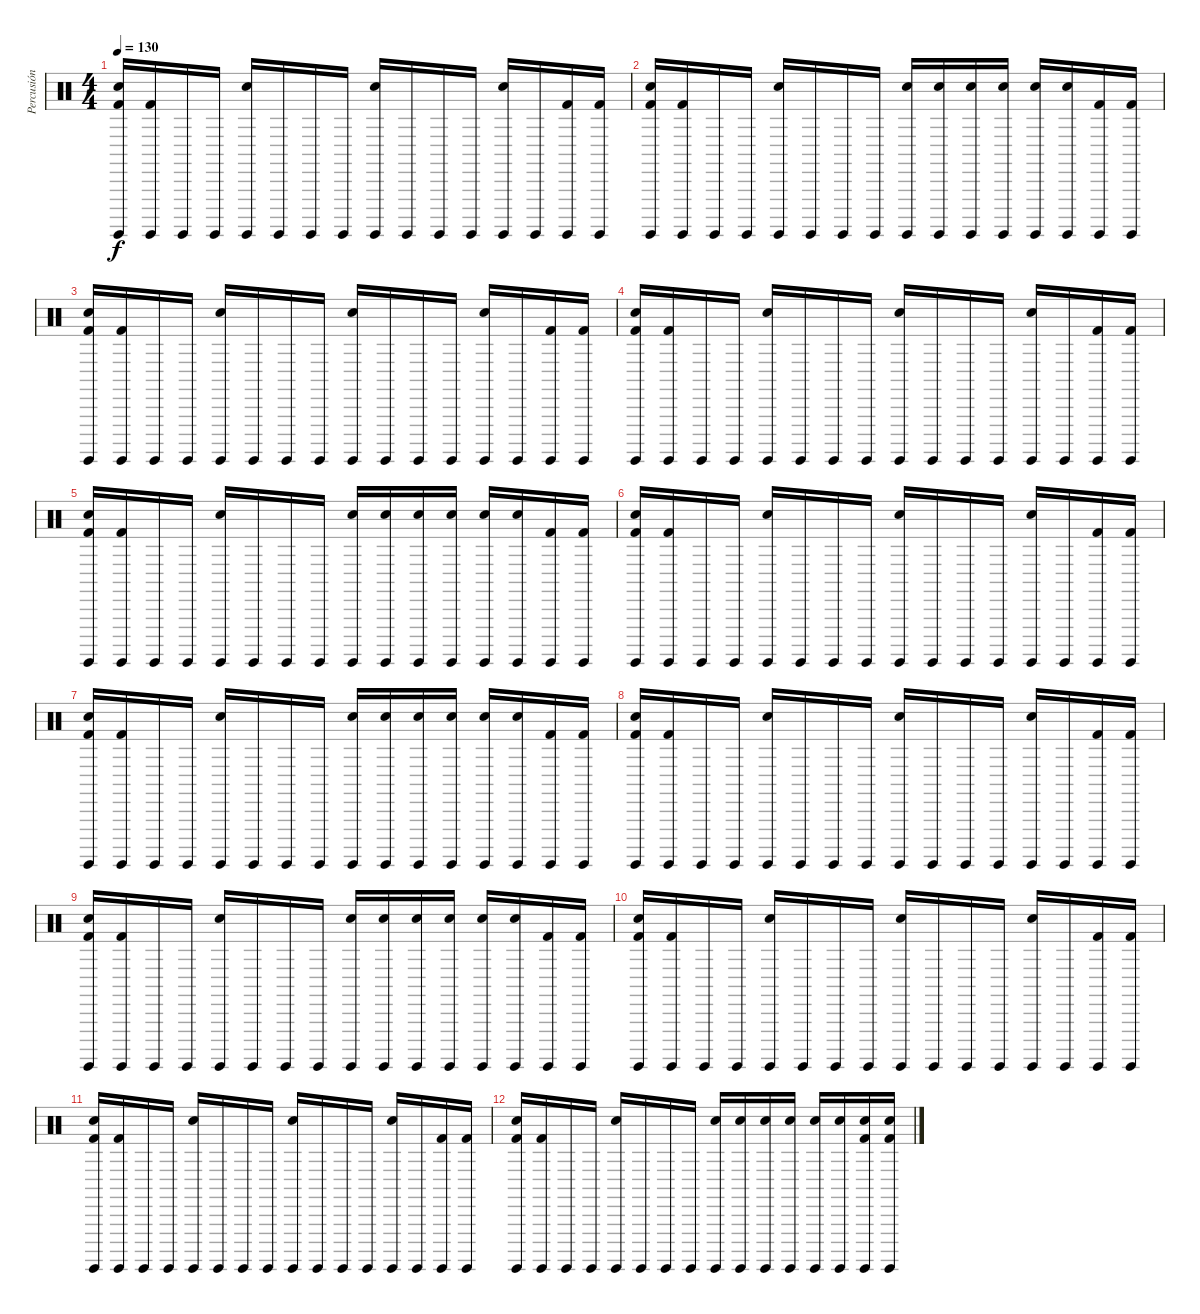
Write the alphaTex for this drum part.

\track ("Percusión" "Percusión") {instrument percussion}
\staff {score}
\articulation defaults
\ts (4 4)
\tempo 130
\clef neutral
\ks c
("Kick (hit) 2" "Electric Snare (hit)" "Surdo (hit)").16{dy f} ("Kick (hit) 2" "Surdo (hit)").16 "Surdo (hit)".16 "Surdo (hit)".16 ("Electric Snare (hit)" "Surdo (hit)").16 "Surdo (hit)".16 "Surdo (hit)".16 "Surdo (hit)".16 ("Electric Snare (hit)" "Surdo (hit)").16 "Surdo (hit)".16 "Surdo (hit)".16 "Surdo (hit)".16 ("Electric Snare (hit)" "Surdo (hit)").16 "Surdo (hit)".16 ("Kick (hit) 2" "Surdo (hit)").16 ("Kick (hit) 2" "Surdo (hit)").16 |
("Kick (hit) 2" "Electric Snare (hit)" "Surdo (hit)").16 ("Kick (hit) 2" "Surdo (hit)").16 "Surdo (hit)".16 "Surdo (hit)".16 ("Electric Snare (hit)" "Surdo (hit)").16 "Surdo (hit)".16 "Surdo (hit)".16 "Surdo (hit)".16 ("Electric Snare (hit)" "Surdo (hit)").16 ("Electric Snare (hit)" "Surdo (hit)").16 ("Electric Snare (hit)" "Surdo (hit)").16 ("Electric Snare (hit)" "Surdo (hit)").16 ("Electric Snare (hit)" "Surdo (hit)").16 ("Electric Snare (hit)" "Surdo (hit)").16 ("Kick (hit) 2" "Surdo (hit)").16 ("Kick (hit) 2" "Surdo (hit)").16 |
("Kick (hit) 2" "Electric Snare (hit)" "Surdo (hit)").16 ("Kick (hit) 2" "Surdo (hit)").16 "Surdo (hit)".16 "Surdo (hit)".16 ("Electric Snare (hit)" "Surdo (hit)").16 "Surdo (hit)".16 "Surdo (hit)".16 "Surdo (hit)".16 ("Electric Snare (hit)" "Surdo (hit)").16 "Surdo (hit)".16 "Surdo (hit)".16 "Surdo (hit)".16 ("Electric Snare (hit)" "Surdo (hit)").16 "Surdo (hit)".16 ("Kick (hit) 2" "Surdo (hit)").16 ("Kick (hit) 2" "Surdo (hit)").16 |
("Kick (hit) 2" "Electric Snare (hit)" "Surdo (hit)").16 ("Kick (hit) 2" "Surdo (hit)").16 "Surdo (hit)".16 "Surdo (hit)".16 ("Electric Snare (hit)" "Surdo (hit)").16 "Surdo (hit)".16 "Surdo (hit)".16 "Surdo (hit)".16 ("Electric Snare (hit)" "Surdo (hit)").16 "Surdo (hit)".16 "Surdo (hit)".16 "Surdo (hit)".16 ("Electric Snare (hit)" "Surdo (hit)").16 "Surdo (hit)".16 ("Kick (hit) 2" "Surdo (hit)").16 ("Kick (hit) 2" "Surdo (hit)").16 |
("Kick (hit) 2" "Electric Snare (hit)" "Surdo (hit)").16 ("Kick (hit) 2" "Surdo (hit)").16 "Surdo (hit)".16 "Surdo (hit)".16 ("Electric Snare (hit)" "Surdo (hit)").16 "Surdo (hit)".16 "Surdo (hit)".16 "Surdo (hit)".16 ("Electric Snare (hit)" "Surdo (hit)").16 ("Electric Snare (hit)" "Surdo (hit)").16 ("Electric Snare (hit)" "Surdo (hit)").16 ("Electric Snare (hit)" "Surdo (hit)").16 ("Electric Snare (hit)" "Surdo (hit)").16 ("Electric Snare (hit)" "Surdo (hit)").16 ("Kick (hit) 2" "Surdo (hit)").16 ("Kick (hit) 2" "Surdo (hit)").16 |
("Kick (hit) 2" "Electric Snare (hit)" "Surdo (hit)").16 ("Kick (hit) 2" "Surdo (hit)").16 "Surdo (hit)".16 "Surdo (hit)".16 ("Electric Snare (hit)" "Surdo (hit)").16 "Surdo (hit)".16 "Surdo (hit)".16 "Surdo (hit)".16 ("Electric Snare (hit)" "Surdo (hit)").16 "Surdo (hit)".16 "Surdo (hit)".16 "Surdo (hit)".16 ("Electric Snare (hit)" "Surdo (hit)").16 "Surdo (hit)".16 ("Kick (hit) 2" "Surdo (hit)").16 ("Kick (hit) 2" "Surdo (hit)").16 |
("Kick (hit) 2" "Electric Snare (hit)" "Surdo (hit)").16 ("Kick (hit) 2" "Surdo (hit)").16 "Surdo (hit)".16 "Surdo (hit)".16 ("Electric Snare (hit)" "Surdo (hit)").16 "Surdo (hit)".16 "Surdo (hit)".16 "Surdo (hit)".16 ("Electric Snare (hit)" "Surdo (hit)").16 ("Electric Snare (hit)" "Surdo (hit)").16 ("Electric Snare (hit)" "Surdo (hit)").16 ("Electric Snare (hit)" "Surdo (hit)").16 ("Electric Snare (hit)" "Surdo (hit)").16 ("Electric Snare (hit)" "Surdo (hit)").16 ("Kick (hit) 2" "Surdo (hit)").16 ("Kick (hit) 2" "Surdo (hit)").16 |
("Kick (hit) 2" "Electric Snare (hit)" "Surdo (hit)").16 ("Kick (hit) 2" "Surdo (hit)").16 "Surdo (hit)".16 "Surdo (hit)".16 ("Electric Snare (hit)" "Surdo (hit)").16 "Surdo (hit)".16 "Surdo (hit)".16 "Surdo (hit)".16 ("Electric Snare (hit)" "Surdo (hit)").16 "Surdo (hit)".16 "Surdo (hit)".16 "Surdo (hit)".16 ("Electric Snare (hit)" "Surdo (hit)").16 "Surdo (hit)".16 ("Kick (hit) 2" "Surdo (hit)").16 ("Kick (hit) 2" "Surdo (hit)").16 |
("Kick (hit) 2" "Electric Snare (hit)" "Surdo (hit)").16 ("Kick (hit) 2" "Surdo (hit)").16 "Surdo (hit)".16 "Surdo (hit)".16 ("Electric Snare (hit)" "Surdo (hit)").16 "Surdo (hit)".16 "Surdo (hit)".16 "Surdo (hit)".16 ("Electric Snare (hit)" "Surdo (hit)").16 ("Electric Snare (hit)" "Surdo (hit)").16 ("Electric Snare (hit)" "Surdo (hit)").16 ("Electric Snare (hit)" "Surdo (hit)").16 ("Electric Snare (hit)" "Surdo (hit)").16 ("Electric Snare (hit)" "Surdo (hit)").16 ("Kick (hit) 2" "Surdo (hit)").16 ("Kick (hit) 2" "Surdo (hit)").16 |
("Kick (hit) 2" "Electric Snare (hit)" "Surdo (hit)").16 ("Kick (hit) 2" "Surdo (hit)").16 "Surdo (hit)".16 "Surdo (hit)".16 ("Electric Snare (hit)" "Surdo (hit)").16 "Surdo (hit)".16 "Surdo (hit)".16 "Surdo (hit)".16 ("Electric Snare (hit)" "Surdo (hit)").16 "Surdo (hit)".16 "Surdo (hit)".16 "Surdo (hit)".16 ("Electric Snare (hit)" "Surdo (hit)").16 "Surdo (hit)".16 ("Kick (hit) 2" "Surdo (hit)").16 ("Kick (hit) 2" "Surdo (hit)").16 |
("Kick (hit) 2" "Electric Snare (hit)" "Surdo (hit)").16 ("Kick (hit) 2" "Surdo (hit)").16 "Surdo (hit)".16 "Surdo (hit)".16 ("Electric Snare (hit)" "Surdo (hit)").16 "Surdo (hit)".16 "Surdo (hit)".16 "Surdo (hit)".16 ("Electric Snare (hit)" "Surdo (hit)").16 "Surdo (hit)".16 "Surdo (hit)".16 "Surdo (hit)".16 ("Electric Snare (hit)" "Surdo (hit)").16 "Surdo (hit)".16 ("Kick (hit) 2" "Surdo (hit)").16 ("Kick (hit) 2" "Surdo (hit)").16 |
("Kick (hit) 2" "Electric Snare (hit)" "Surdo (hit)").16 ("Kick (hit) 2" "Surdo (hit)").16 "Surdo (hit)".16 "Surdo (hit)".16 ("Electric Snare (hit)" "Surdo (hit)").16 "Surdo (hit)".16 "Surdo (hit)".16 "Surdo (hit)".16 ("Electric Snare (hit)" "Surdo (hit)").16 ("Electric Snare (hit)" "Surdo (hit)").16 ("Electric Snare (hit)" "Surdo (hit)").16 ("Electric Snare (hit)" "Surdo (hit)").16 ("Electric Snare (hit)" "Surdo (hit)").16 ("Electric Snare (hit)" "Surdo (hit)").16 ("Kick (hit) 2" "Electric Snare (hit)" "Surdo (hit)").16 ("Kick (hit) 2" "Electric Snare (hit)" "Surdo (hit)").16
